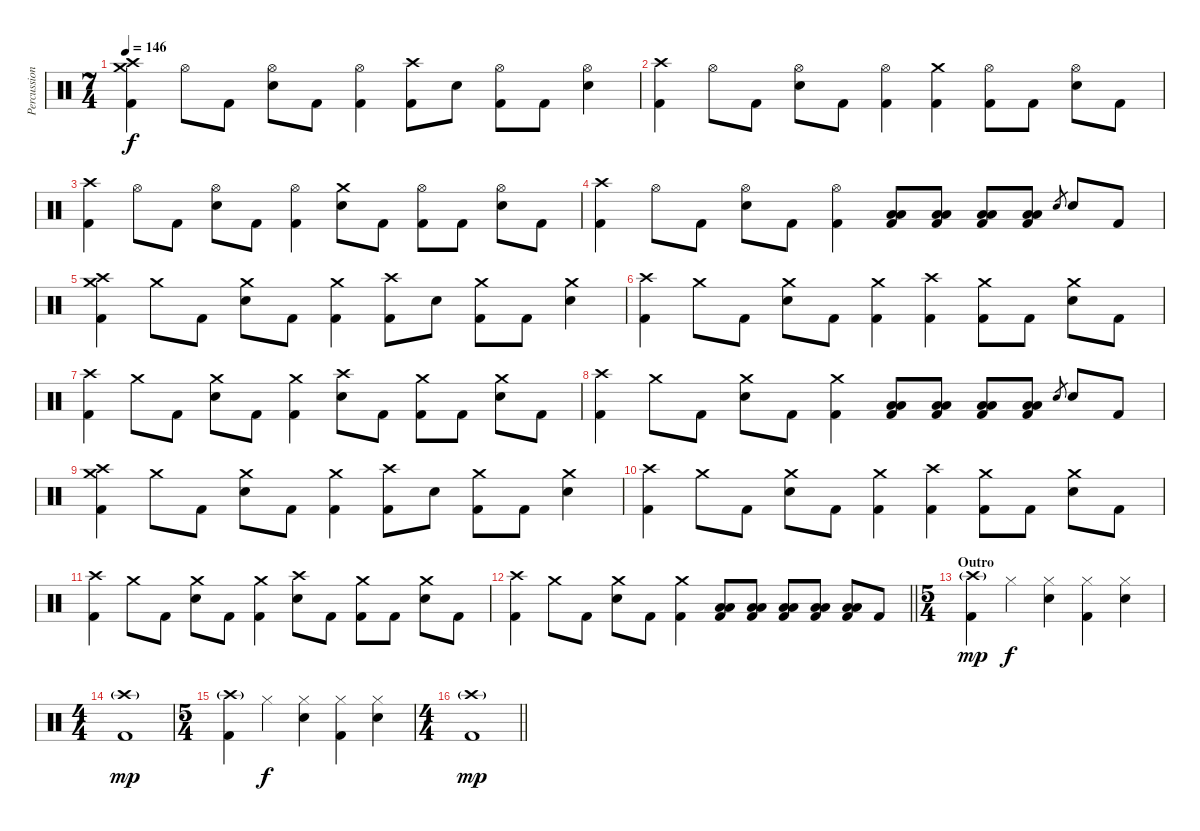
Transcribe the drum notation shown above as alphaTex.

\track ("Percussion" "Percussion") {instrument percussion}
\staff {score}
\articulation defaults
\ts (7 4)
\tempo 146
\clef neutral
\ks c
("Crash high (hit)" "Crash medium (hit)" "Kick (hit) 2").4{dy f} "Hi-Hat (open)".8 "Kick (hit) 2".8 ("Hi-Hat (open)" "Electric Snare (hit)").8 "Kick (hit) 2".8 ("Hi-Hat (open)" "Kick (hit) 2").4 ("Crash high (hit)" "Kick (hit) 2").8 "Electric Snare (hit)".8 ("Hi-Hat (open)" "Kick (hit) 2").8 "Kick (hit) 2".8 ("Hi-Hat (open)" "Electric Snare (hit)").4 |
("Crash high (hit)" "Kick (hit) 2").4 "Hi-Hat (open)".8 "Kick (hit) 2".8 ("Hi-Hat (open)" "Electric Snare (hit)").8 "Kick (hit) 2".8 ("Hi-Hat (open)" "Kick (hit) 2").4 ("Crash medium (hit)" "Kick (hit) 2").4 ("Hi-Hat (open)" "Kick (hit) 2").8 "Kick (hit) 2".8 ("Hi-Hat (open)" "Electric Snare (hit)").8 "Kick (hit) 2".8 |
("Crash high (hit)" "Kick (hit) 2").4 "Hi-Hat (open)".8 "Kick (hit) 2".8 ("Hi-Hat (open)" "Electric Snare (hit)").8 "Kick (hit) 2".8 ("Hi-Hat (open)" "Kick (hit) 2").4 ("Crash medium (hit)" "Electric Snare (hit)").8 "Kick (hit) 2".8 ("Hi-Hat (open)" "Kick (hit) 2").8 "Kick (hit) 2".8 ("Hi-Hat (open)" "Electric Snare (hit)").8 "Kick (hit) 2".8 |
("Crash high (hit)" "Kick (hit) 2").4 "Hi-Hat (open)".8 "Kick (hit) 2".8 ("Hi-Hat (open)" "Electric Snare (hit)").8 "Kick (hit) 2".8 ("Hi-Hat (open)" "Kick (hit) 2").4 ("Low Tom (hit)" "Low Floor Tom (hit)" "Kick (hit) 2").8 ("Low Tom (hit)" "Low Floor Tom (hit)" "Kick (hit) 2").8 ("Low Tom (hit)" "Low Floor Tom (hit)" "Kick (hit) 2").8 ("Low Tom (hit)" "Low Floor Tom (hit)" "Kick (hit) 2").8 "Electric Snare (hit)".8{gr} "Electric Snare (hit)".8 "Kick (hit) 2".8 |
("Crash high (hit)" "Crash medium (hit)" "Kick (hit) 2").4 "Crash medium (hit)".8 "Kick (hit) 2".8 ("Crash medium (hit)" "Electric Snare (hit)").8 "Kick (hit) 2".8 ("Crash medium (hit)" "Kick (hit) 2").4 ("Crash high (hit)" "Kick (hit) 2").8 "Electric Snare (hit)".8 ("Crash medium (hit)" "Kick (hit) 2").8 "Kick (hit) 2".8 ("Crash medium (hit)" "Electric Snare (hit)").4 |
("Crash high (hit)" "Kick (hit) 2").4 "Crash medium (hit)".8 "Kick (hit) 2".8 ("Crash medium (hit)" "Electric Snare (hit)").8 "Kick (hit) 2".8 ("Crash medium (hit)" "Kick (hit) 2").4 ("Crash high (hit)" "Kick (hit) 2").4 ("Crash medium (hit)" "Kick (hit) 2").8 "Kick (hit) 2".8 ("Crash medium (hit)" "Electric Snare (hit)").8 "Kick (hit) 2".8 |
("Crash high (hit)" "Kick (hit) 2").4 "Crash medium (hit)".8 "Kick (hit) 2".8 ("Crash medium (hit)" "Electric Snare (hit)").8 "Kick (hit) 2".8 ("Crash medium (hit)" "Kick (hit) 2").4 ("Crash high (hit)" "Electric Snare (hit)").8 "Kick (hit) 2".8 ("Crash medium (hit)" "Kick (hit) 2").8 "Kick (hit) 2".8 ("Crash medium (hit)" "Electric Snare (hit)").8 "Kick (hit) 2".8 |
("Crash high (hit)" "Kick (hit) 2").4 "Crash medium (hit)".8 "Kick (hit) 2".8 ("Crash medium (hit)" "Electric Snare (hit)").8 "Kick (hit) 2".8 ("Crash medium (hit)" "Kick (hit) 2").4 ("Low Tom (hit)" "Low Floor Tom (hit)" "Kick (hit) 2").8 ("Low Tom (hit)" "Low Floor Tom (hit)" "Kick (hit) 2").8 ("Low Tom (hit)" "Low Floor Tom (hit)" "Kick (hit) 2").8 ("Low Tom (hit)" "Low Floor Tom (hit)" "Kick (hit) 2").8 "Electric Snare (hit)".8{gr} "Electric Snare (hit)".8 "Kick (hit) 2".8 |
("Crash high (hit)" "Crash medium (hit)" "Kick (hit) 2").4 "Crash medium (hit)".8 "Kick (hit) 2".8 ("Crash medium (hit)" "Electric Snare (hit)").8 "Kick (hit) 2".8 ("Crash medium (hit)" "Kick (hit) 2").4 ("Crash high (hit)" "Kick (hit) 2").8 "Electric Snare (hit)".8 ("Crash medium (hit)" "Kick (hit) 2").8 "Kick (hit) 2".8 ("Crash medium (hit)" "Electric Snare (hit)").4 |
("Crash high (hit)" "Kick (hit) 2").4 "Crash medium (hit)".8 "Kick (hit) 2".8 ("Crash medium (hit)" "Electric Snare (hit)").8 "Kick (hit) 2".8 ("Crash medium (hit)" "Kick (hit) 2").4 ("Crash high (hit)" "Kick (hit) 2").4 ("Crash medium (hit)" "Kick (hit) 2").8 "Kick (hit) 2".8 ("Crash medium (hit)" "Electric Snare (hit)").8 "Kick (hit) 2".8 |
("Crash high (hit)" "Kick (hit) 2").4 "Crash medium (hit)".8 "Kick (hit) 2".8 ("Crash medium (hit)" "Electric Snare (hit)").8 "Kick (hit) 2".8 ("Crash medium (hit)" "Kick (hit) 2").4 ("Crash high (hit)" "Electric Snare (hit)").8 "Kick (hit) 2".8 ("Crash medium (hit)" "Kick (hit) 2").8 "Kick (hit) 2".8 ("Crash medium (hit)" "Electric Snare (hit)").8 "Kick (hit) 2".8 |
\barLineRight lightlight
("Crash high (hit)" "Kick (hit) 2").4 "Crash medium (hit)".8 "Kick (hit) 2".8 ("Crash medium (hit)" "Electric Snare (hit)").8 "Kick (hit) 2".8 ("Crash medium (hit)" "Kick (hit) 2").4 ("Low Tom (hit)" "Low Floor Tom (hit)" "Kick (hit) 2").8 ("Low Tom (hit)" "Low Floor Tom (hit)" "Kick (hit) 2").8 ("Low Tom (hit)" "Low Floor Tom (hit)" "Kick (hit) 2").8 ("Low Tom (hit)" "Low Floor Tom (hit)" "Kick (hit) 2").8 ("Low Tom (hit)" "Low Floor Tom (hit)" "Kick (hit) 2").8 "Kick (hit) 2".8 |
\ts (5 4)
\section ("" "Outro")
("Crash high (hit)"{g} "Kick (hit) 2").4{dy mp} "Hi-Hat (closed)".4{dy f} ("Hi-Hat (closed)" "Electric Snare (hit)").4 ("Hi-Hat (closed)" "Kick (hit) 2").4 ("Hi-Hat (closed)" "Electric Snare (hit)").4 |
\ts (4 4)
("Crash high (hit)"{g} "Kick (hit) 2").1{dy mp} |
\ts (5 4)
("Crash high (hit)"{g} "Kick (hit) 2").4 "Hi-Hat (closed)".4{dy f} ("Hi-Hat (closed)" "Electric Snare (hit)").4 ("Hi-Hat (closed)" "Kick (hit) 2").4 ("Hi-Hat (closed)" "Electric Snare (hit)").4 |
\ts (4 4)
\barLineRight lightlight
("Crash high (hit)"{g} "Kick (hit) 2").1{dy mp}
